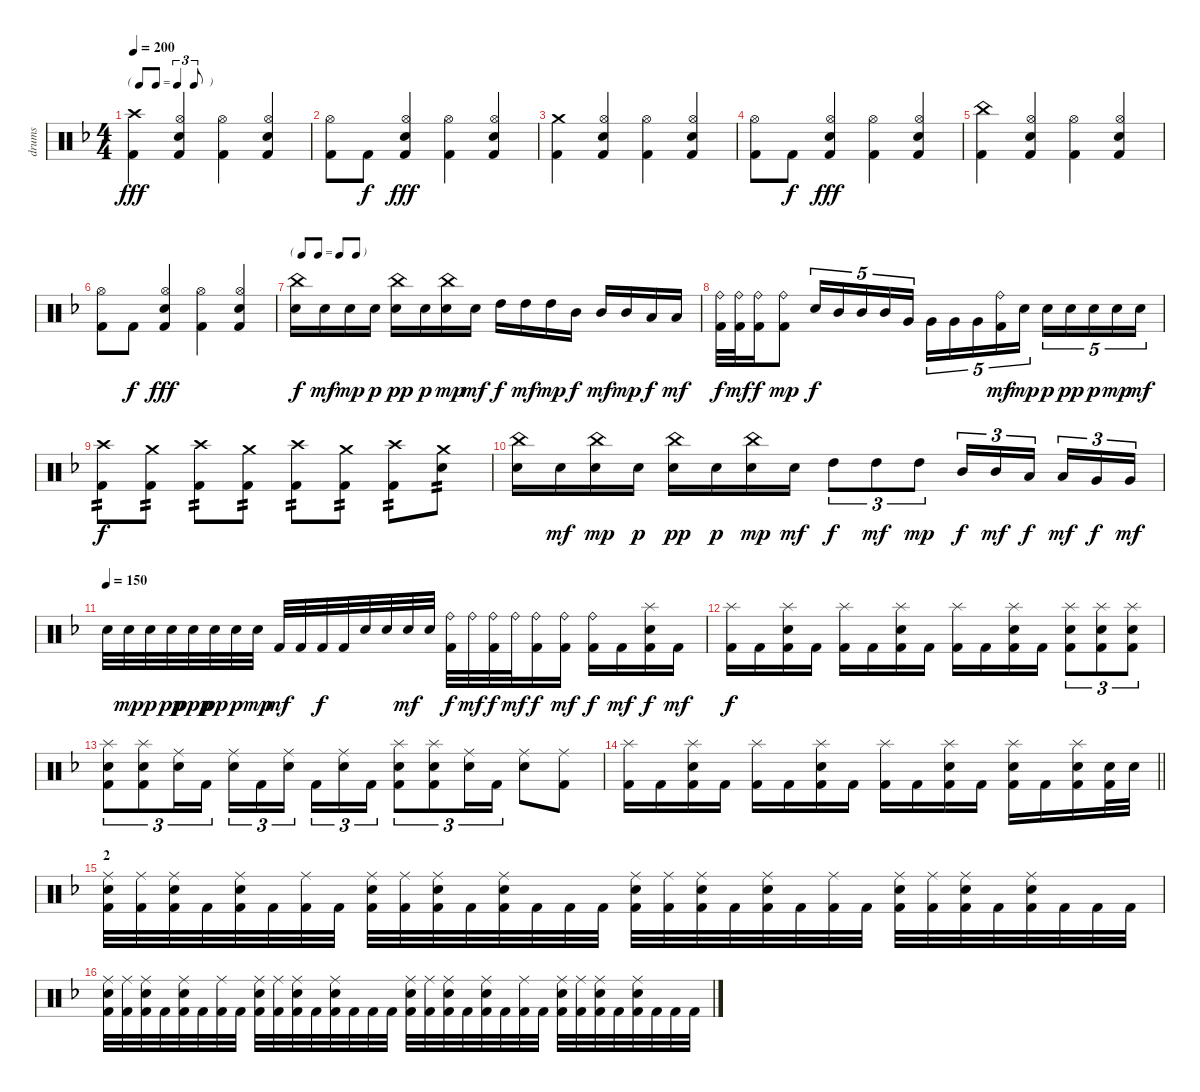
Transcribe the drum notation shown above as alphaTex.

\track ("drums" "drums") {instrument percussion}
\staff {score}
\articulation defaults
\ts (4 4)
\tf triplet8th
\tempo 200
\clef neutral
\ks dminor
("Crash high (hit)" "Kick (hit) 2").4{dy fff} ("Hi-Hat (open)" "Electric Snare (hit)" "Kick (hit) 2").4 ("Hi-Hat (open)" "Kick (hit) 2").4 ("Hi-Hat (open)" "Electric Snare (hit)" "Kick (hit) 2").4 |
("Hi-Hat (open)" "Kick (hit) 2").8 "Kick (hit) 2".8{dy f} ("Hi-Hat (open)" "Electric Snare (hit)" "Kick (hit) 2").4{dy fff} ("Hi-Hat (open)" "Kick (hit) 2").4 ("Hi-Hat (open)" "Electric Snare (hit)" "Kick (hit) 2").4 |
("Crash medium (hit)" "Kick (hit) 2").4 ("Hi-Hat (open)" "Electric Snare (hit)" "Kick (hit) 2").4 ("Hi-Hat (open)" "Kick (hit) 2").4 ("Hi-Hat (open)" "Electric Snare (hit)" "Kick (hit) 2").4 |
("Hi-Hat (open)" "Kick (hit) 2").8 "Kick (hit) 2".8{dy f} ("Hi-Hat (open)" "Electric Snare (hit)" "Kick (hit) 2").4{dy fff} ("Hi-Hat (open)" "Kick (hit) 2").4 ("Hi-Hat (open)" "Electric Snare (hit)" "Kick (hit) 2").4 |
("China (hit)" "Kick (hit) 2").4 ("Hi-Hat (open)" "Electric Snare (hit)" "Kick (hit) 2").4 ("Hi-Hat (open)" "Kick (hit) 2").4 ("Hi-Hat (open)" "Electric Snare (hit)" "Kick (hit) 2").4 |
("Hi-Hat (open)" "Kick (hit) 2").8 "Kick (hit) 2".8{dy f} ("Hi-Hat (open)" "Electric Snare (hit)" "Kick (hit) 2").4{dy fff} ("Hi-Hat (open)" "Kick (hit) 2").4 ("Hi-Hat (open)" "Electric Snare (hit)" "Kick (hit) 2").4 |
\tf none
("China (hit)" "Electric Snare (hit)").16{dy f} "Electric Snare (hit)".16{dy mf} "Electric Snare (hit)".16{dy mp} "Electric Snare (hit)".16{dy p} ("China (hit)" "Electric Snare (hit)").16{dy pp} "Electric Snare (hit)".16{dy p} ("China (hit)" "Electric Snare (hit)").16{dy mp} "Electric Snare (hit)".16{dy mf} "High Tom (hit)".16{dy f} "High Tom (hit)".16{dy mf} "High Tom (hit)".16{dy mp} "Mid Tom (hit)".16{dy f} "Mid Tom (hit)".16{dy mf} "Mid Tom (hit)".16{dy mp} "Low Tom (hit)".16{dy f} "Low Tom (hit)".16{dy mf} |
("Ride (bell)" "Kick (hit) 2").32{dy f} ("Ride (bell)" "Kick (hit) 2").32{dy mf} ("Ride (bell)" "Kick (hit) 2").16{dy f} ("Ride (bell)" "Kick (hit) 2").8{dy mp} "Electric Snare (hit)".16{tu (5 4) dy f} "Mid Tom (hit)".16{tu (5 4)} "Mid Tom (hit)".16{tu (5 4)} "Mid Tom (hit)".16{tu (5 4)} "Very Low Tom (hit)".16{tu (5 4)} "Very Low Tom (hit)".16{tu (5 4)} "Very Low Tom (hit)".16{tu (5 4)} "Very Low Tom (hit)".16{tu (5 4)} ("Ride (bell)" "Kick (hit) 2").16{tu (5 4) dy mf} "Electric Snare (hit)".16{tu (5 4) dy mp} "Electric Snare (hit)".16{tu (5 4) dy p} "Electric Snare (hit)".16{tu (5 4) dy pp} "Electric Snare (hit)".16{tu (5 4) dy p} "Electric Snare (hit)".16{tu (5 4) dy mp} "Electric Snare (hit)".16{tu (5 4) dy mf} |
("Crash high (hit)" "Kick (hit) 2").8{tp 2 dy f} ("Crash medium (hit)" "Kick (hit) 2").8{tp 2} ("Crash high (hit)" "Kick (hit) 2").8{tp 2} ("Crash medium (hit)" "Kick (hit) 2").8{tp 2} ("Crash high (hit)" "Kick (hit) 2").8{tp 2} ("Crash medium (hit)" "Kick (hit) 2").8{tp 2} ("Crash high (hit)" "Kick (hit) 2").8{tp 2} ("Crash medium (hit)" "Electric Snare (hit)").8{tp 2} |
("China (hit)" "Electric Snare (hit)").16 "Electric Snare (hit)".16{dy mf} ("China (hit)" "Electric Snare (hit)").16{dy mp} "Electric Snare (hit)".16{dy p} ("China (hit)" "Electric Snare (hit)").16{dy pp} "Electric Snare (hit)".16{dy p} ("China (hit)" "Electric Snare (hit)").16{dy mp} "Electric Snare (hit)".16{dy mf} "High Tom (hit)".8{tu (3 2) dy f} "High Tom (hit)".8{tu (3 2) dy mf} "High Tom (hit)".8{tu (3 2) dy mp} "Mid Tom (hit)".16{tu (3 2) dy f} "Mid Tom (hit)".16{tu (3 2) dy mf} "Low Tom (hit)".16{tu (3 2) dy f beam splitsecondary} "Low Tom (hit)".16{tu (3 2) dy mf} "Very Low Tom (hit)".16{tu (3 2) dy f} "Very Low Tom (hit)".16{tu (3 2) dy mf} |
\tempo (150)
"Electric Snare (hit)".32 "Electric Snare (hit)".32{dy mp} "Electric Snare (hit)".32{dy p} "Electric Snare (hit)".32{dy pp} "Electric Snare (hit)".32{dy ppp} "Electric Snare (hit)".32{dy pp} "Electric Snare (hit)".32{dy p} "Electric Snare (hit)".32{dy mp} "Kick (hit) 2".32{dy mf} "Kick (hit) 2".32 "Kick (hit) 2".32{dy f} "Kick (hit) 2".32 "Electric Snare (hit)".32 "Electric Snare (hit)".32 "Electric Snare (hit)".32{dy mf} "Electric Snare (hit)".32 ("Ride (bell)" "Kick (hit) 2").32{dy f} "Ride (bell)".32{dy mf} ("Ride (bell)" "Kick (hit) 2").32{dy f} "Ride (bell)".32{dy mf} ("Ride (bell)" "Kick (hit) 2").16{dy f} ("Ride (bell)" "Kick (hit) 2").16{dy mf} ("Ride (bell)" "Kick (hit) 2").16{dy f} "Kick (hit) 2".16{dy mf} ("Splash (hit)" "Electric Snare (hit)" "Kick (hit) 2").16{dy f} "Kick (hit) 2".16{dy mf} |
("Splash (hit)" "Kick (hit) 2").16{dy f} "Kick (hit) 2".16 ("Splash (hit)" "Electric Snare (hit)" "Kick (hit) 2").16 "Kick (hit) 2".16 ("Splash (hit)" "Kick (hit) 2").16 "Kick (hit) 2".16 ("Splash (hit)" "Electric Snare (hit)" "Kick (hit) 2").16 "Kick (hit) 2".16 ("Splash (hit)" "Kick (hit) 2").16 "Kick (hit) 2".16 ("Splash (hit)" "Electric Snare (hit)" "Kick (hit) 2").16 "Kick (hit) 2".16 ("Splash (hit)" "Electric Snare (hit)" "Kick (hit) 2").8{tu (3 2)} ("Splash (hit)" "Electric Snare (hit)" "Kick (hit) 2").8{tu (3 2)} ("Splash (hit)" "Electric Snare (hit)" "Kick (hit) 2").8{tu (3 2)} |
("Splash (hit)" "Electric Snare (hit)" "Kick (hit) 2").8{tu (3 2)} ("Splash (hit)" "Electric Snare (hit)" "Kick (hit) 2").8{tu (3 2)} ("Ride (middle)" "Electric Snare (hit)").16{tu (3 2)} "Kick (hit) 2".16{tu (3 2)} ("Ride (middle)" "Electric Snare (hit)").16{tu (3 2)} "Kick (hit) 2".16{tu (3 2)} ("Ride (middle)" "Electric Snare (hit)").16{tu (3 2) beam splitsecondary} "Kick (hit) 2".16{tu (3 2)} ("Ride (middle)" "Electric Snare (hit)").16{tu (3 2)} "Kick (hit) 2".16{tu (3 2)} ("Splash (hit)" "Electric Snare (hit)" "Kick (hit) 2").8{tu (3 2)} ("Splash (hit)" "Electric Snare (hit)" "Kick (hit) 2").8{tu (3 2)} ("Ride (middle)" "Electric Snare (hit)").16{tu (3 2)} "Kick (hit) 2".16{tu (3 2)} ("Ride (middle)" "Electric Snare (hit)").8 ("Ride (middle)" "Kick (hit) 2").8 |
\barLineRight lightlight
("Splash (hit)" "Kick (hit) 2").16 "Kick (hit) 2".16 ("Splash (hit)" "Electric Snare (hit)" "Kick (hit) 2").16 "Kick (hit) 2".16 ("Splash (hit)" "Kick (hit) 2").16 "Kick (hit) 2".16 ("Splash (hit)" "Electric Snare (hit)" "Kick (hit) 2").16 "Kick (hit) 2".16 ("Splash (hit)" "Kick (hit) 2").16 "Kick (hit) 2".16 ("Splash (hit)" "Electric Snare (hit)" "Kick (hit) 2").16 "Kick (hit) 2".16 ("Splash (hit)" "Electric Snare (hit)" "Kick (hit) 2").16 "Kick (hit) 2".16 ("Splash (hit)" "Electric Snare (hit)" "Kick (hit) 2").16 ("Electric Snare (hit)" "Kick (hit) 2").32 "Electric Snare (hit)".32 |
\section ("" "2")
("Ride (middle)" "Electric Snare (hit)" "Kick (hit) 2").32 ("Ride (middle)" "Kick (hit) 2").32 ("Ride (middle)" "Electric Snare (hit)" "Kick (hit) 2").32 "Kick (hit) 2".32 ("Ride (middle)" "Electric Snare (hit)" "Kick (hit) 2").32 "Kick (hit) 2".32 ("Ride (middle)" "Kick (hit) 2").32 "Kick (hit) 2".32 ("Ride (middle)" "Electric Snare (hit)" "Kick (hit) 2").32 ("Ride (middle)" "Kick (hit) 2").32 ("Ride (middle)" "Electric Snare (hit)" "Kick (hit) 2").32 "Kick (hit) 2".32 ("Ride (middle)" "Electric Snare (hit)" "Kick (hit) 2").32 "Kick (hit) 2".32 "Kick (hit) 2".32 "Kick (hit) 2".32 ("Ride (middle)" "Electric Snare (hit)" "Kick (hit) 2").32 ("Ride (middle)" "Kick (hit) 2").32 ("Ride (middle)" "Electric Snare (hit)" "Kick (hit) 2").32 "Kick (hit) 2".32 ("Ride (middle)" "Electric Snare (hit)" "Kick (hit) 2").32 "Kick (hit) 2".32 ("Ride (middle)" "Kick (hit) 2").32 "Kick (hit) 2".32 ("Ride (middle)" "Electric Snare (hit)" "Kick (hit) 2").32 ("Ride (middle)" "Kick (hit) 2").32 ("Ride (middle)" "Electric Snare (hit)" "Kick (hit) 2").32 "Kick (hit) 2".32 ("Ride (middle)" "Electric Snare (hit)" "Kick (hit) 2").32 "Kick (hit) 2".32 "Kick (hit) 2".32 "Kick (hit) 2".32 |
("Ride (middle)" "Electric Snare (hit)" "Kick (hit) 2").32 ("Ride (middle)" "Kick (hit) 2").32 ("Ride (middle)" "Electric Snare (hit)" "Kick (hit) 2").32 "Kick (hit) 2".32 ("Ride (middle)" "Electric Snare (hit)" "Kick (hit) 2").32 "Kick (hit) 2".32 ("Ride (middle)" "Kick (hit) 2").32 "Kick (hit) 2".32 ("Ride (middle)" "Electric Snare (hit)" "Kick (hit) 2").32 ("Ride (middle)" "Kick (hit) 2").32 ("Ride (middle)" "Electric Snare (hit)" "Kick (hit) 2").32 "Kick (hit) 2".32 ("Ride (middle)" "Electric Snare (hit)" "Kick (hit) 2").32 "Kick (hit) 2".32 "Kick (hit) 2".32 "Kick (hit) 2".32 ("Ride (middle)" "Electric Snare (hit)" "Kick (hit) 2").32 ("Ride (middle)" "Kick (hit) 2").32 ("Ride (middle)" "Electric Snare (hit)" "Kick (hit) 2").32 "Kick (hit) 2".32 ("Ride (middle)" "Electric Snare (hit)" "Kick (hit) 2").32 "Kick (hit) 2".32 ("Ride (middle)" "Kick (hit) 2").32 "Kick (hit) 2".32 ("Ride (middle)" "Electric Snare (hit)" "Kick (hit) 2").32 ("Ride (middle)" "Kick (hit) 2").32 ("Ride (middle)" "Electric Snare (hit)" "Kick (hit) 2").32 "Kick (hit) 2".32 ("Ride (middle)" "Electric Snare (hit)" "Kick (hit) 2").32 "Kick (hit) 2".32 "Kick (hit) 2".32 "Kick (hit) 2".32
